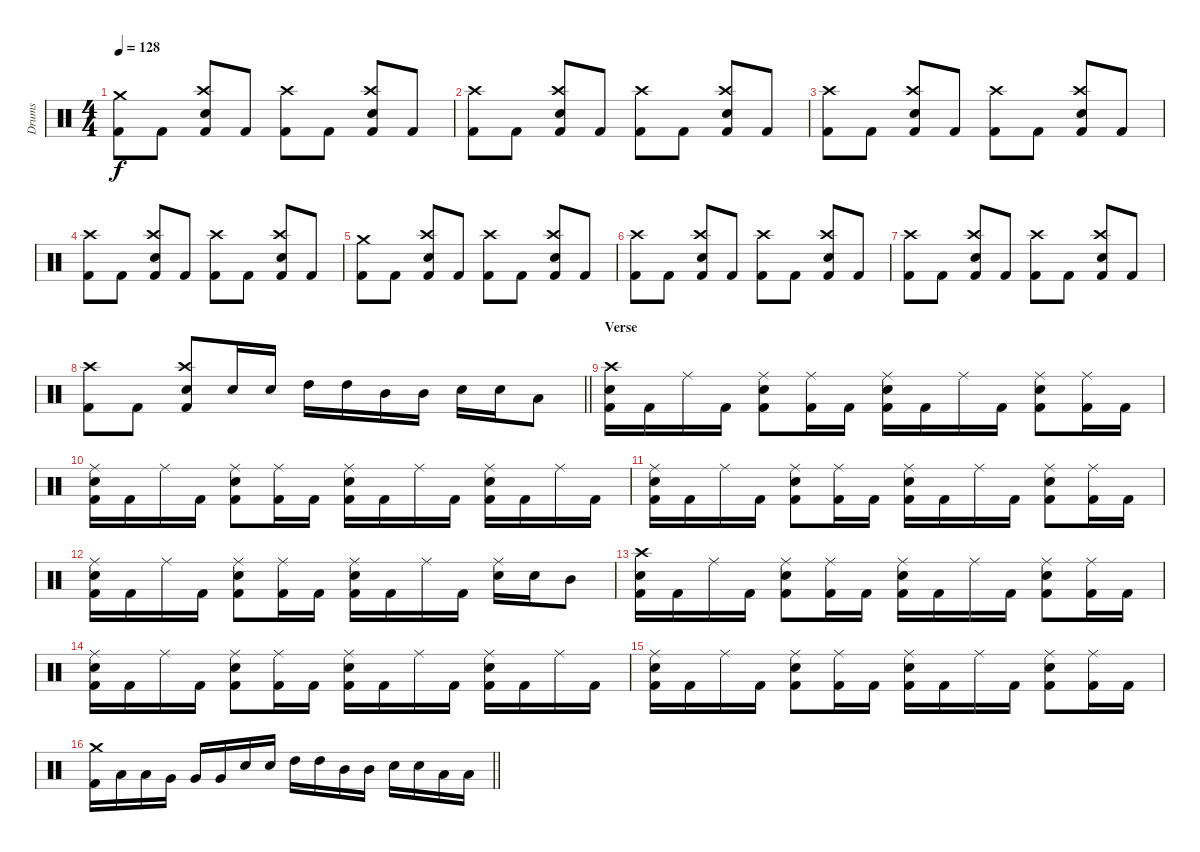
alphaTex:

\track ("Drums" "Drums") {instrument percussion}
\staff {score}
\articulation defaults
\ts (4 4)
\section ("" "")
\tempo 128
\clef neutral
\ks c
("Crash medium (hit)" "Kick (hit) 2").8{dy f} "Kick (hit) 2".8 ("Crash high (hit)" "Electric Snare (hit)" "Kick (hit) 2").8 "Kick (hit) 2".8 ("Crash high (hit)" "Kick (hit) 2").8 "Kick (hit) 2".8 ("Crash high (hit)" "Electric Snare (hit)" "Kick (hit) 2").8 "Kick (hit) 2".8 |
("Crash high (hit)" "Kick (hit) 2").8 "Kick (hit) 2".8 ("Crash high (hit)" "Electric Snare (hit)" "Kick (hit) 2").8 "Kick (hit) 2".8 ("Crash high (hit)" "Kick (hit) 2").8 "Kick (hit) 2".8 ("Crash high (hit)" "Electric Snare (hit)" "Kick (hit) 2").8 "Kick (hit) 2".8 |
("Crash high (hit)" "Kick (hit) 2").8 "Kick (hit) 2".8 ("Crash high (hit)" "Electric Snare (hit)" "Kick (hit) 2").8 "Kick (hit) 2".8 ("Crash high (hit)" "Kick (hit) 2").8 "Kick (hit) 2".8 ("Crash high (hit)" "Electric Snare (hit)" "Kick (hit) 2").8 "Kick (hit) 2".8 |
("Crash high (hit)" "Kick (hit) 2").8 "Kick (hit) 2".8 ("Crash high (hit)" "Electric Snare (hit)" "Kick (hit) 2").8 "Kick (hit) 2".8 ("Crash high (hit)" "Kick (hit) 2").8 "Kick (hit) 2".8 ("Crash high (hit)" "Electric Snare (hit)" "Kick (hit) 2").8 "Kick (hit) 2".8 |
("Crash medium (hit)" "Kick (hit) 2").8 "Kick (hit) 2".8 ("Crash high (hit)" "Electric Snare (hit)" "Kick (hit) 2").8 "Kick (hit) 2".8 ("Crash high (hit)" "Kick (hit) 2").8 "Kick (hit) 2".8 ("Crash high (hit)" "Electric Snare (hit)" "Kick (hit) 2").8 "Kick (hit) 2".8 |
("Crash high (hit)" "Kick (hit) 2").8 "Kick (hit) 2".8 ("Crash high (hit)" "Electric Snare (hit)" "Kick (hit) 2").8 "Kick (hit) 2".8 ("Crash high (hit)" "Kick (hit) 2").8 "Kick (hit) 2".8 ("Crash high (hit)" "Electric Snare (hit)" "Kick (hit) 2").8 "Kick (hit) 2".8 |
("Crash high (hit)" "Kick (hit) 2").8 "Kick (hit) 2".8 ("Crash high (hit)" "Electric Snare (hit)" "Kick (hit) 2").8 "Kick (hit) 2".8 ("Crash high (hit)" "Kick (hit) 2").8 "Kick (hit) 2".8 ("Crash high (hit)" "Electric Snare (hit)" "Kick (hit) 2").8 "Kick (hit) 2".8 |
\barLineRight lightlight
("Crash high (hit)" "Kick (hit) 2").8 "Kick (hit) 2".8 ("Crash high (hit)" "Electric Snare (hit)" "Kick (hit) 2").8 "Electric Snare (hit)".16 "Electric Snare (hit)".16 "High Tom (hit)".16 "High Tom (hit)".16 "Mid Tom (hit)".16 "Mid Tom (hit)".16 "Electric Snare (hit)".16 "Electric Snare (hit)".16 "Low Tom (hit)".8 |
\section ("" "Verse")
("Crash high (hit)" "Electric Snare (hit)" "Kick (hit) 2").16 "Kick (hit) 2".16 "Ride (middle)".16 "Kick (hit) 2".16 ("Ride (middle)" "Electric Snare (hit)" "Kick (hit) 2").8 ("Ride (middle)" "Kick (hit) 2").16 "Kick (hit) 2".16 ("Ride (middle)" "Electric Snare (hit)" "Kick (hit) 2").16 "Kick (hit) 2".16 "Ride (middle)".16 "Kick (hit) 2".16 ("Ride (middle)" "Electric Snare (hit)" "Kick (hit) 2").8 ("Ride (middle)" "Kick (hit) 2").16 "Kick (hit) 2".16 |
("Ride (middle)" "Electric Snare (hit)" "Kick (hit) 2").16 "Kick (hit) 2".16 "Ride (middle)".16 "Kick (hit) 2".16 ("Ride (middle)" "Electric Snare (hit)" "Kick (hit) 2").8 ("Ride (middle)" "Kick (hit) 2").16 "Kick (hit) 2".16 ("Ride (middle)" "Electric Snare (hit)" "Kick (hit) 2").16 "Kick (hit) 2".16 "Ride (middle)".16 "Kick (hit) 2".16 ("Ride (middle)" "Electric Snare (hit)" "Kick (hit) 2").16 "Kick (hit) 2".16 "Ride (middle)".16 "Kick (hit) 2".16 |
("Ride (middle)" "Electric Snare (hit)" "Kick (hit) 2").16 "Kick (hit) 2".16 "Ride (middle)".16 "Kick (hit) 2".16 ("Ride (middle)" "Electric Snare (hit)" "Kick (hit) 2").8 ("Ride (middle)" "Kick (hit) 2").16 "Kick (hit) 2".16 ("Ride (middle)" "Electric Snare (hit)" "Kick (hit) 2").16 "Kick (hit) 2".16 "Ride (middle)".16 "Kick (hit) 2".16 ("Ride (middle)" "Electric Snare (hit)" "Kick (hit) 2").8 ("Ride (middle)" "Kick (hit) 2").16 "Kick (hit) 2".16 |
("Ride (middle)" "Electric Snare (hit)" "Kick (hit) 2").16 "Kick (hit) 2".16 "Ride (middle)".16 "Kick (hit) 2".16 ("Ride (middle)" "Electric Snare (hit)" "Kick (hit) 2").8 ("Ride (middle)" "Kick (hit) 2").16 "Kick (hit) 2".16 ("Ride (middle)" "Electric Snare (hit)" "Kick (hit) 2").16 "Kick (hit) 2".16 "Ride (middle)".16 "Kick (hit) 2".16 ("Ride (middle)" "Electric Snare (hit)").16 "Electric Snare (hit)".16 "Mid Tom (hit)".8 |
("Crash high (hit)" "Electric Snare (hit)" "Kick (hit) 2").16 "Kick (hit) 2".16 "Ride (middle)".16 "Kick (hit) 2".16 ("Ride (middle)" "Electric Snare (hit)" "Kick (hit) 2").8 ("Ride (middle)" "Kick (hit) 2").16 "Kick (hit) 2".16 ("Ride (middle)" "Electric Snare (hit)" "Kick (hit) 2").16 "Kick (hit) 2".16 "Ride (middle)".16 "Kick (hit) 2".16 ("Ride (middle)" "Electric Snare (hit)" "Kick (hit) 2").8 ("Ride (middle)" "Kick (hit) 2").16 "Kick (hit) 2".16 |
("Ride (middle)" "Electric Snare (hit)" "Kick (hit) 2").16 "Kick (hit) 2".16 "Ride (middle)".16 "Kick (hit) 2".16 ("Ride (middle)" "Electric Snare (hit)" "Kick (hit) 2").8 ("Ride (middle)" "Kick (hit) 2").16 "Kick (hit) 2".16 ("Ride (middle)" "Electric Snare (hit)" "Kick (hit) 2").16 "Kick (hit) 2".16 "Ride (middle)".16 "Kick (hit) 2".16 ("Ride (middle)" "Electric Snare (hit)" "Kick (hit) 2").16 "Kick (hit) 2".16 "Ride (middle)".16 "Kick (hit) 2".16 |
("Ride (middle)" "Electric Snare (hit)" "Kick (hit) 2").16 "Kick (hit) 2".16 "Ride (middle)".16 "Kick (hit) 2".16 ("Ride (middle)" "Electric Snare (hit)" "Kick (hit) 2").8 ("Ride (middle)" "Kick (hit) 2").16 "Kick (hit) 2".16 ("Ride (middle)" "Electric Snare (hit)" "Kick (hit) 2").16 "Kick (hit) 2".16 "Ride (middle)".16 "Kick (hit) 2".16 ("Ride (middle)" "Electric Snare (hit)" "Kick (hit) 2").8 ("Ride (middle)" "Kick (hit) 2").16 "Kick (hit) 2".16 |
\barLineRight lightlight
("Crash medium (hit)" "Kick (hit) 2").16 "Low Tom (hit)".16 "Low Tom (hit)".16 "Very Low Tom (hit)".16 "Very Low Tom (hit)".16 "Very Low Tom (hit)".16 "Electric Snare (hit)".16 "Electric Snare (hit)".16 "High Tom (hit)".16 "High Tom (hit)".16 "Mid Tom (hit)".16 "Mid Tom (hit)".16 "Electric Snare (hit)".16 "Electric Snare (hit)".16 "Low Tom (hit)".16 "Low Tom (hit)".16
